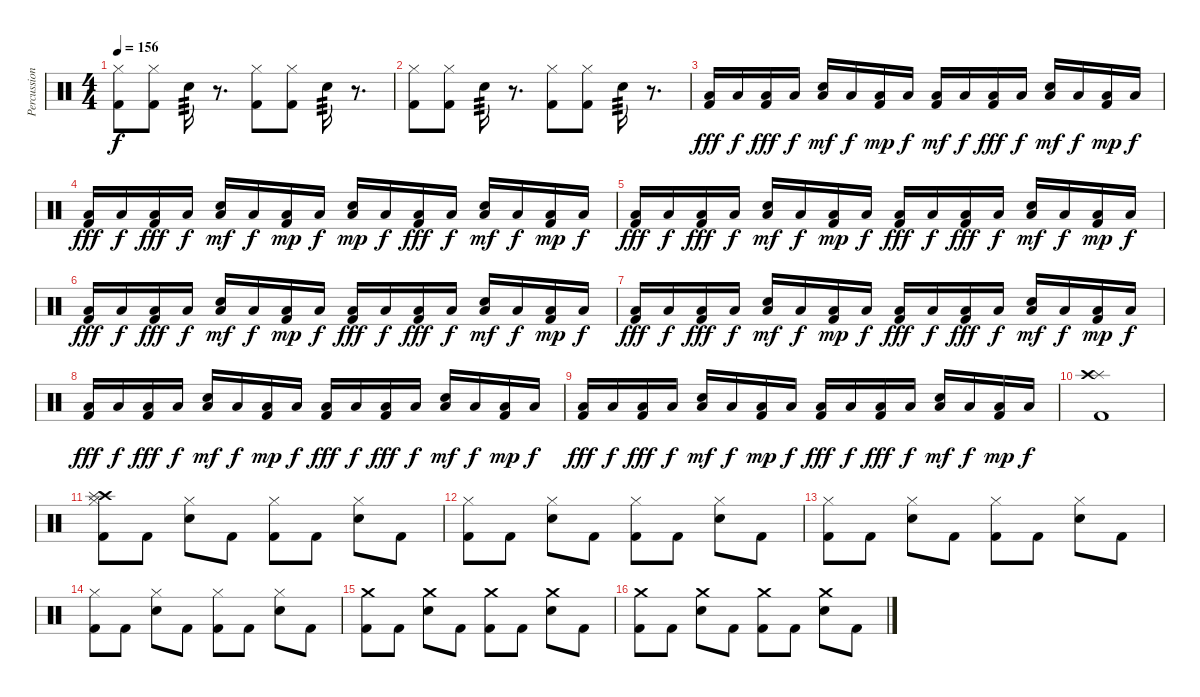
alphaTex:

\track ("Percussion" "Percussion") {instrument percussion}
\staff {score}
\articulation defaults
\ts (4 4)
\tempo 156
\clef neutral
\ks c
("Hi-Hat (closed)" "Kick (hit) 2").8{dy f} ("Hi-Hat (closed)" "Kick (hit) 2").8 "Electric Snare (hit)".16{tp 3} r.8{d} ("Hi-Hat (closed)" "Kick (hit) 2").8 ("Hi-Hat (closed)" "Kick (hit) 2").8 "Electric Snare (hit)".16{tp 3} r.8{d} |
("Hi-Hat (closed)" "Kick (hit) 2").8 ("Hi-Hat (closed)" "Kick (hit) 2").8 "Electric Snare (hit)".16{tp 3} r.8{d} ("Hi-Hat (closed)" "Kick (hit) 2").8 ("Hi-Hat (closed)" "Kick (hit) 2").8 "Electric Snare (hit)".16{tp 3} r.8{d} |
("Low Floor Tom (hit)" "Kick (hit) 2").16{dy fff} "Low Floor Tom (hit)".16{dy f} ("Low Floor Tom (hit)" "Kick (hit) 2").16{dy fff} "Low Floor Tom (hit)".16{dy f} ("Low Floor Tom (hit)" "Electric Snare (hit)").16{dy mf} "Low Floor Tom (hit)".16{dy f} ("Low Floor Tom (hit)" "Kick (hit) 2").16{dy mp} "Low Floor Tom (hit)".16{dy f} ("Low Floor Tom (hit)" "Kick (hit) 2").16{dy mf} "Low Floor Tom (hit)".16{dy f} ("Low Floor Tom (hit)" "Kick (hit) 2").16{dy fff} "Low Floor Tom (hit)".16{dy f} ("Low Floor Tom (hit)" "Electric Snare (hit)").16{dy mf} "Low Floor Tom (hit)".16{dy f} ("Low Floor Tom (hit)" "Kick (hit) 2").16{dy mp} "Low Floor Tom (hit)".16{dy f} |
("Low Floor Tom (hit)" "Kick (hit) 2").16{dy fff} "Low Floor Tom (hit)".16{dy f} ("Low Floor Tom (hit)" "Kick (hit) 2").16{dy fff} "Low Floor Tom (hit)".16{dy f} ("Low Floor Tom (hit)" "Electric Snare (hit)").16{dy mf} "Low Floor Tom (hit)".16{dy f} ("Low Floor Tom (hit)" "Kick (hit) 2").16{dy mp} "Low Floor Tom (hit)".16{dy f} ("Low Floor Tom (hit)" "Electric Snare (hit)").16{dy mp} "Low Floor Tom (hit)".16{dy f} ("Low Floor Tom (hit)" "Kick (hit) 2").16{dy fff} "Low Floor Tom (hit)".16{dy f} ("Low Floor Tom (hit)" "Electric Snare (hit)").16{dy mf} "Low Floor Tom (hit)".16{dy f} ("Low Floor Tom (hit)" "Kick (hit) 2").16{dy mp} "Low Floor Tom (hit)".16{dy f} |
("Low Floor Tom (hit)" "Kick (hit) 2").16{dy fff} "Low Floor Tom (hit)".16{dy f} ("Low Floor Tom (hit)" "Kick (hit) 2").16{dy fff} "Low Floor Tom (hit)".16{dy f} ("Low Floor Tom (hit)" "Electric Snare (hit)").16{dy mf} "Low Floor Tom (hit)".16{dy f} ("Low Floor Tom (hit)" "Kick (hit) 2").16{dy mp} "Low Floor Tom (hit)".16{dy f} ("Low Floor Tom (hit)" "Kick (hit) 2").16{dy fff} "Low Floor Tom (hit)".16{dy f} ("Low Floor Tom (hit)" "Kick (hit) 2").16{dy fff} "Low Floor Tom (hit)".16{dy f} ("Low Floor Tom (hit)" "Electric Snare (hit)").16{dy mf} "Low Floor Tom (hit)".16{dy f} ("Low Floor Tom (hit)" "Kick (hit) 2").16{dy mp} "Low Floor Tom (hit)".16{dy f} |
("Low Floor Tom (hit)" "Kick (hit) 2").16{dy fff} "Low Floor Tom (hit)".16{dy f} ("Low Floor Tom (hit)" "Kick (hit) 2").16{dy fff} "Low Floor Tom (hit)".16{dy f} ("Low Floor Tom (hit)" "Electric Snare (hit)").16{dy mf} "Low Floor Tom (hit)".16{dy f} ("Low Floor Tom (hit)" "Kick (hit) 2").16{dy mp} "Low Floor Tom (hit)".16{dy f} ("Low Floor Tom (hit)" "Kick (hit) 2").16{dy fff} "Low Floor Tom (hit)".16{dy f} ("Low Floor Tom (hit)" "Kick (hit) 2").16{dy fff} "Low Floor Tom (hit)".16{dy f} ("Low Floor Tom (hit)" "Electric Snare (hit)").16{dy mf} "Low Floor Tom (hit)".16{dy f} ("Low Floor Tom (hit)" "Kick (hit) 2").16{dy mp} "Low Floor Tom (hit)".16{dy f} |
("Low Floor Tom (hit)" "Kick (hit) 2").16{dy fff} "Low Floor Tom (hit)".16{dy f} ("Low Floor Tom (hit)" "Kick (hit) 2").16{dy fff} "Low Floor Tom (hit)".16{dy f} ("Low Floor Tom (hit)" "Electric Snare (hit)").16{dy mf} "Low Floor Tom (hit)".16{dy f} ("Low Floor Tom (hit)" "Kick (hit) 2").16{dy mp} "Low Floor Tom (hit)".16{dy f} ("Low Floor Tom (hit)" "Kick (hit) 2").16{dy fff} "Low Floor Tom (hit)".16{dy f} ("Low Floor Tom (hit)" "Kick (hit) 2").16{dy fff} "Low Floor Tom (hit)".16{dy f} ("Low Floor Tom (hit)" "Electric Snare (hit)").16{dy mf} "Low Floor Tom (hit)".16{dy f} ("Low Floor Tom (hit)" "Kick (hit) 2").16{dy mp} "Low Floor Tom (hit)".16{dy f} |
("Low Floor Tom (hit)" "Kick (hit) 2").16{dy fff} "Low Floor Tom (hit)".16{dy f} ("Low Floor Tom (hit)" "Kick (hit) 2").16{dy fff} "Low Floor Tom (hit)".16{dy f} ("Low Floor Tom (hit)" "Electric Snare (hit)").16{dy mf} "Low Floor Tom (hit)".16{dy f} ("Low Floor Tom (hit)" "Kick (hit) 2").16{dy mp} "Low Floor Tom (hit)".16{dy f} ("Low Floor Tom (hit)" "Kick (hit) 2").16{dy fff} "Low Floor Tom (hit)".16{dy f} ("Low Floor Tom (hit)" "Kick (hit) 2").16{dy fff} "Low Floor Tom (hit)".16{dy f} ("Low Floor Tom (hit)" "Electric Snare (hit)").16{dy mf} "Low Floor Tom (hit)".16{dy f} ("Low Floor Tom (hit)" "Kick (hit) 2").16{dy mp} "Low Floor Tom (hit)".16{dy f} |
("Low Floor Tom (hit)" "Kick (hit) 2").16{dy fff} "Low Floor Tom (hit)".16{dy f} ("Low Floor Tom (hit)" "Kick (hit) 2").16{dy fff} "Low Floor Tom (hit)".16{dy f} ("Low Floor Tom (hit)" "Electric Snare (hit)").16{dy mf} "Low Floor Tom (hit)".16{dy f} ("Low Floor Tom (hit)" "Kick (hit) 2").16{dy mp} "Low Floor Tom (hit)".16{dy f} ("Low Floor Tom (hit)" "Kick (hit) 2").16{dy fff} "Low Floor Tom (hit)".16{dy f} ("Low Floor Tom (hit)" "Kick (hit) 2").16{dy fff} "Low Floor Tom (hit)".16{dy f} ("Low Floor Tom (hit)" "Electric Snare (hit)").16{dy mf} "Low Floor Tom (hit)".16{dy f} ("Low Floor Tom (hit)" "Kick (hit) 2").16{dy mp} "Low Floor Tom (hit)".16{dy f} |
("Splash (hit)" "Crash high (hit)" "Kick (hit) 2").1 |
("Crash high (hit)" "Splash (hit)" "Hi-Hat (closed)" "Kick (hit) 2").8 "Kick (hit) 2".8 ("Hi-Hat (closed)" "Electric Snare (hit)").8 "Kick (hit) 2".8 ("Hi-Hat (closed)" "Kick (hit) 2").8 "Kick (hit) 2".8 ("Hi-Hat (closed)" "Electric Snare (hit)").8 "Kick (hit) 2".8 |
("Hi-Hat (closed)" "Kick (hit) 2").8 "Kick (hit) 2".8 ("Hi-Hat (closed)" "Electric Snare (hit)").8 "Kick (hit) 2".8 ("Hi-Hat (closed)" "Kick (hit) 2").8 "Kick (hit) 2".8 ("Hi-Hat (closed)" "Electric Snare (hit)").8 "Kick (hit) 2".8 |
("Hi-Hat (closed)" "Kick (hit) 2").8 "Kick (hit) 2".8 ("Hi-Hat (closed)" "Electric Snare (hit)").8 "Kick (hit) 2".8 ("Hi-Hat (closed)" "Kick (hit) 2").8 "Kick (hit) 2".8 ("Hi-Hat (closed)" "Electric Snare (hit)").8 "Kick (hit) 2".8 |
("Hi-Hat (closed)" "Kick (hit) 2").8 "Kick (hit) 2".8 ("Hi-Hat (closed)" "Electric Snare (hit)").8 "Kick (hit) 2".8 ("Hi-Hat (closed)" "Kick (hit) 2").8 "Kick (hit) 2".8 ("Hi-Hat (closed)" "Electric Snare (hit)").8 "Kick (hit) 2".8 |
("Crash medium (hit)" "Kick (hit) 2").8 "Kick (hit) 2".8 ("Crash medium (hit)" "Electric Snare (hit)").8 "Kick (hit) 2".8 ("Crash medium (hit)" "Kick (hit) 2").8 "Kick (hit) 2".8 ("Crash medium (hit)" "Electric Snare (hit)").8 "Kick (hit) 2".8 |
("Crash medium (hit)" "Kick (hit) 2").8 "Kick (hit) 2".8 ("Crash medium (hit)" "Electric Snare (hit)").8 "Kick (hit) 2".8 ("Crash medium (hit)" "Kick (hit) 2").8 "Kick (hit) 2".8 ("Crash medium (hit)" "Electric Snare (hit)").8 "Kick (hit) 2".8
